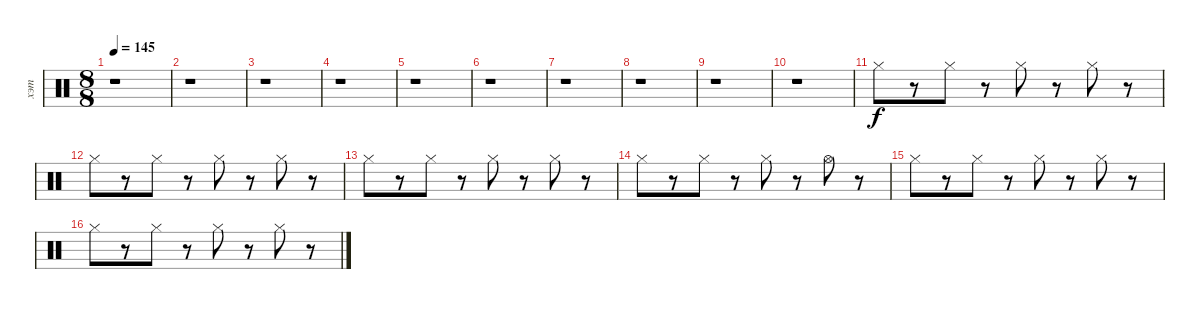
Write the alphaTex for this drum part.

\track ("хэт" "хэт") {instrument percussion}
\staff {score}
\articulation defaults
\ts (8 8)
\tempo 145
\clef neutral
\ks c
r.1{dy f} |
r.1 |
r.1 |
r.1 |
r.1 |
r.1 |
r.1 |
r.1 |
r.1 |
r.1 |
"Hi-Hat (closed)".8 r.8 "Hi-Hat (closed)".8 r.8 "Hi-Hat (closed)".8 r.8 "Hi-Hat (closed)".8 r.8 |
"Hi-Hat (closed)".8 r.8 "Hi-Hat (closed)".8 r.8 "Hi-Hat (closed)".8 r.8 "Hi-Hat (closed)".8 r.8 |
"Hi-Hat (closed)".8 r.8 "Hi-Hat (closed)".8 r.8 "Hi-Hat (closed)".8 r.8 "Hi-Hat (closed)".8 r.8 |
"Hi-Hat (closed)".8 r.8 "Hi-Hat (closed)".8 r.8 "Hi-Hat (closed)".8 r.8 "Hi-Hat (open)".8 r.8 |
"Hi-Hat (closed)".8 r.8 "Hi-Hat (closed)".8 r.8 "Hi-Hat (closed)".8 r.8 "Hi-Hat (closed)".8 r.8 |
"Hi-Hat (closed)".8 r.8 "Hi-Hat (closed)".8 r.8 "Hi-Hat (closed)".8 r.8 "Hi-Hat (closed)".8 r.8
